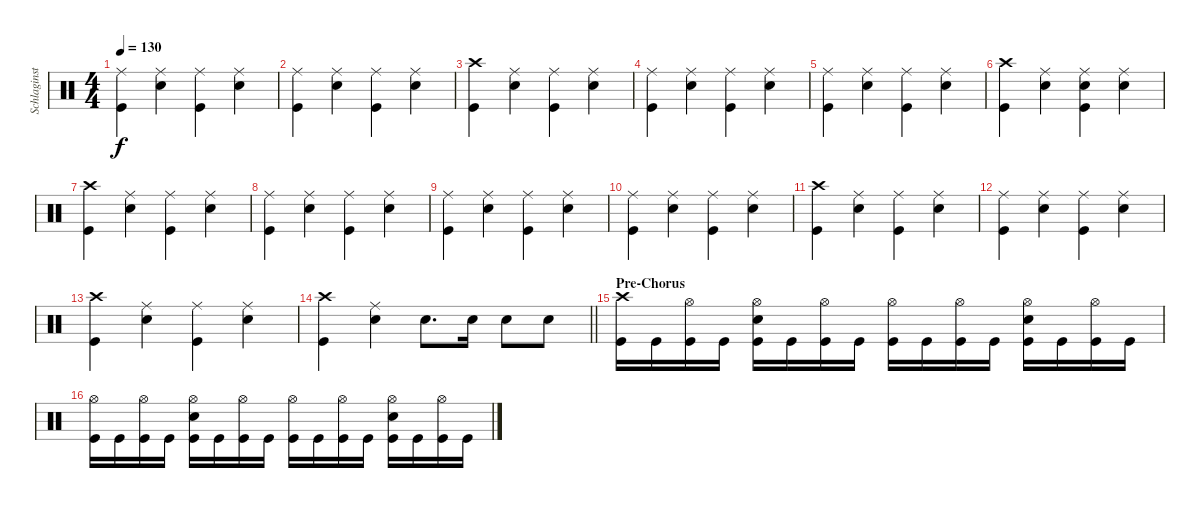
\track ("Schlaginstrumente - Auswahl" "Schlaginst") {instrument percussion}
\staff {score}
\articulation defaults
\ts (4 4)
\tempo 130
\clef neutral
\ks c
("Ride (middle)" "Kick (hit)").4{dy f} ("Ride (middle)" "Snare (hit) 2").4 ("Ride (middle)" "Kick (hit)").4 ("Ride (middle)" "Snare (hit) 2").4 |
("Ride (middle)" "Kick (hit)").4 ("Ride (middle)" "Snare (hit) 2").4 ("Ride (middle)" "Kick (hit)").4 ("Ride (middle)" "Snare (hit) 2").4 |
("Crash high (hit)" "Kick (hit)").4 ("Ride (middle)" "Snare (hit) 2").4 ("Ride (middle)" "Kick (hit)").4 ("Ride (middle)" "Snare (hit) 2").4 |
("Ride (middle)" "Kick (hit)").4 ("Ride (middle)" "Snare (hit) 2").4 ("Ride (middle)" "Kick (hit)").4 ("Ride (middle)" "Snare (hit) 2").4 |
("Ride (middle)" "Kick (hit)").4 ("Ride (middle)" "Snare (hit) 2").4 ("Ride (middle)" "Kick (hit)").4 ("Ride (middle)" "Snare (hit) 2").4 |
("Crash high (hit)" "Kick (hit)").4 ("Ride (middle)" "Snare (hit) 2").4 ("Ride (middle)" "Kick (hit)" "Snare (hit) 2").4 ("Ride (middle)" "Snare (hit) 2").4 |
("Crash high (hit)" "Kick (hit)").4 ("Ride (middle)" "Snare (hit) 2").4 ("Ride (middle)" "Kick (hit)").4 ("Ride (middle)" "Snare (hit) 2").4 |
("Ride (middle)" "Kick (hit)").4 ("Ride (middle)" "Snare (hit) 2").4 ("Ride (middle)" "Kick (hit)").4 ("Ride (middle)" "Snare (hit) 2").4 |
("Ride (middle)" "Kick (hit)").4 ("Ride (middle)" "Snare (hit) 2").4 ("Ride (middle)" "Kick (hit)").4 ("Ride (middle)" "Snare (hit) 2").4 |
("Ride (middle)" "Kick (hit)").4 ("Ride (middle)" "Snare (hit) 2").4 ("Ride (middle)" "Kick (hit)").4 ("Ride (middle)" "Snare (hit) 2").4 |
("Crash high (hit)" "Kick (hit)").4 ("Ride (middle)" "Snare (hit) 2").4 ("Ride (middle)" "Kick (hit)").4 ("Ride (middle)" "Snare (hit) 2").4 |
("Ride (middle)" "Kick (hit)").4 ("Ride (middle)" "Snare (hit) 2").4 ("Ride (middle)" "Kick (hit)").4 ("Ride (middle)" "Snare (hit) 2").4 |
("Crash high (hit)" "Kick (hit)").4 ("Ride (middle)" "Snare (hit) 2").4 ("Ride (middle)" "Kick (hit)").4 ("Ride (middle)" "Snare (hit) 2").4 |
\barLineRight lightlight
("Crash high (hit)" "Kick (hit)").4 ("Ride (middle)" "Snare (hit) 2").4 "Snare (hit) 2".8{d} "Snare (hit) 2".16 "Snare (hit) 2".8 "Snare (hit) 2".8 |
\section ("" "Pre-Chorus")
("Kick (hit)" "Crash high (hit)").16 "Kick (hit)".16 ("Kick (hit)" "Hi-Hat (open)").16 "Kick (hit)".16 ("Kick (hit)" "Snare (hit) 2" "Hi-Hat (open)").16 "Kick (hit)".16 ("Kick (hit)" "Hi-Hat (open)").16 "Kick (hit)".16 ("Kick (hit)" "Hi-Hat (open)").16 "Kick (hit)".16 ("Kick (hit)" "Hi-Hat (open)").16 "Kick (hit)".16 ("Kick (hit)" "Snare (hit) 2" "Hi-Hat (open)").16 "Kick (hit)".16 ("Kick (hit)" "Hi-Hat (open)").16 "Kick (hit)".16 |
("Kick (hit)" "Hi-Hat (open)").16 "Kick (hit)".16 ("Kick (hit)" "Hi-Hat (open)").16 "Kick (hit)".16 ("Kick (hit)" "Snare (hit) 2" "Hi-Hat (open)").16 "Kick (hit)".16 ("Kick (hit)" "Hi-Hat (open)").16 "Kick (hit)".16 ("Kick (hit)" "Hi-Hat (open)").16 "Kick (hit)".16 ("Kick (hit)" "Hi-Hat (open)").16 "Kick (hit)".16 ("Kick (hit)" "Snare (hit) 2" "Hi-Hat (open)").16 "Kick (hit)".16 ("Kick (hit)" "Hi-Hat (open)").16 "Kick (hit)".16
